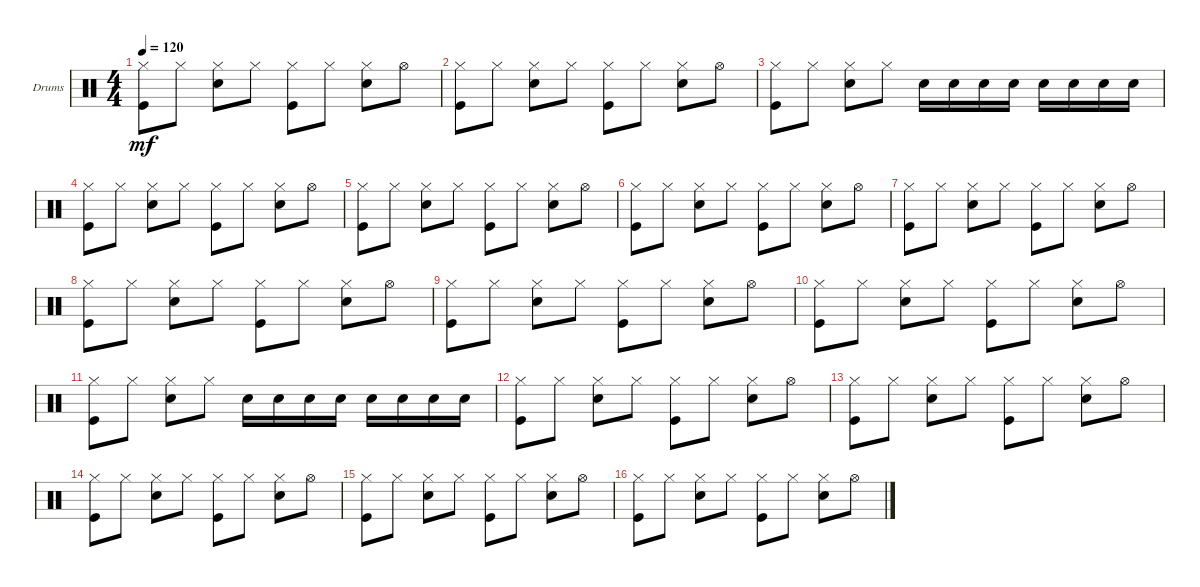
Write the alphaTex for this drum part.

\bracketExtendMode groupsimilarinstruments
\firstSystemTrackNameOrientation horizontal
\otherSystemsTrackNameOrientation horizontal
\track ("Drumkit" "Drums") {instrument percussion}
\staff {score}
\articulation defaults
\ts (4 4)
\tempo 120
\clef neutral
\ks c
("Kick (hit)" "Hi-Hat (closed)").8{dy mf} "Hi-Hat (closed)".8 ("Snare (hit) 2" "Hi-Hat (closed)").8 "Hi-Hat (closed)".8 ("Kick (hit)" "Hi-Hat (closed)").8 "Hi-Hat (closed)".8 ("Snare (hit) 2" "Hi-Hat (closed)").8 "Hi-Hat (open)".8 |
("Kick (hit)" "Hi-Hat (closed)").8 "Hi-Hat (closed)".8 ("Snare (hit) 2" "Hi-Hat (closed)").8 "Hi-Hat (closed)".8 ("Kick (hit)" "Hi-Hat (closed)").8 "Hi-Hat (closed)".8 ("Snare (hit) 2" "Hi-Hat (closed)").8 "Hi-Hat (open)".8 |
("Kick (hit)" "Hi-Hat (closed)").8 "Hi-Hat (closed)".8 ("Snare (hit) 2" "Hi-Hat (closed)").8 "Hi-Hat (closed)".8 "Snare (hit) 2".16 "Snare (hit) 2".16 "Snare (hit) 2".16 "Snare (hit) 2".16 "Snare (hit) 2".16 "Snare (hit) 2".16 "Snare (hit) 2".16 "Snare (hit) 2".16 |
("Kick (hit)" "Hi-Hat (closed)").8 "Hi-Hat (closed)".8 ("Snare (hit) 2" "Hi-Hat (closed)").8 "Hi-Hat (closed)".8 ("Kick (hit)" "Hi-Hat (closed)").8 "Hi-Hat (closed)".8 ("Snare (hit) 2" "Hi-Hat (closed)").8 "Hi-Hat (open)".8 |
("Kick (hit)" "Hi-Hat (closed)").8 "Hi-Hat (closed)".8 ("Snare (hit) 2" "Hi-Hat (closed)").8 "Hi-Hat (closed)".8 ("Kick (hit)" "Hi-Hat (closed)").8 "Hi-Hat (closed)".8 ("Snare (hit) 2" "Hi-Hat (closed)").8 "Hi-Hat (open)".8 |
("Kick (hit)" "Hi-Hat (closed)").8 "Hi-Hat (closed)".8 ("Snare (hit) 2" "Hi-Hat (closed)").8 "Hi-Hat (closed)".8 ("Kick (hit)" "Hi-Hat (closed)").8 "Hi-Hat (closed)".8 ("Snare (hit) 2" "Hi-Hat (closed)").8 "Hi-Hat (open)".8 |
("Kick (hit)" "Hi-Hat (closed)").8 "Hi-Hat (closed)".8 ("Snare (hit) 2" "Hi-Hat (closed)").8 "Hi-Hat (closed)".8 ("Kick (hit)" "Hi-Hat (closed)").8 "Hi-Hat (closed)".8 ("Snare (hit) 2" "Hi-Hat (closed)").8 "Hi-Hat (open)".8 |
("Kick (hit)" "Hi-Hat (closed)").8 "Hi-Hat (closed)".8 ("Snare (hit) 2" "Hi-Hat (closed)").8 "Hi-Hat (closed)".8 ("Kick (hit)" "Hi-Hat (closed)").8 "Hi-Hat (closed)".8 ("Snare (hit) 2" "Hi-Hat (closed)").8 "Hi-Hat (open)".8 |
("Kick (hit)" "Hi-Hat (closed)").8 "Hi-Hat (closed)".8 ("Snare (hit) 2" "Hi-Hat (closed)").8 "Hi-Hat (closed)".8 ("Kick (hit)" "Hi-Hat (closed)").8 "Hi-Hat (closed)".8 ("Snare (hit) 2" "Hi-Hat (closed)").8 "Hi-Hat (open)".8 |
("Kick (hit)" "Hi-Hat (closed)").8 "Hi-Hat (closed)".8 ("Snare (hit) 2" "Hi-Hat (closed)").8 "Hi-Hat (closed)".8 ("Kick (hit)" "Hi-Hat (closed)").8 "Hi-Hat (closed)".8 ("Snare (hit) 2" "Hi-Hat (closed)").8 "Hi-Hat (open)".8 |
("Kick (hit)" "Hi-Hat (closed)").8 "Hi-Hat (closed)".8 ("Snare (hit) 2" "Hi-Hat (closed)").8 "Hi-Hat (closed)".8 "Snare (hit) 2".16 "Snare (hit) 2".16 "Snare (hit) 2".16 "Snare (hit) 2".16 "Snare (hit) 2".16 "Snare (hit) 2".16 "Snare (hit) 2".16 "Snare (hit) 2".16 |
("Kick (hit)" "Hi-Hat (closed)").8 "Hi-Hat (closed)".8 ("Snare (hit) 2" "Hi-Hat (closed)").8 "Hi-Hat (closed)".8 ("Kick (hit)" "Hi-Hat (closed)").8 "Hi-Hat (closed)".8 ("Snare (hit) 2" "Hi-Hat (closed)").8 "Hi-Hat (open)".8 |
("Kick (hit)" "Hi-Hat (closed)").8 "Hi-Hat (closed)".8 ("Snare (hit) 2" "Hi-Hat (closed)").8 "Hi-Hat (closed)".8 ("Kick (hit)" "Hi-Hat (closed)").8 "Hi-Hat (closed)".8 ("Snare (hit) 2" "Hi-Hat (closed)").8 "Hi-Hat (open)".8 |
("Kick (hit)" "Hi-Hat (closed)").8 "Hi-Hat (closed)".8 ("Snare (hit) 2" "Hi-Hat (closed)").8 "Hi-Hat (closed)".8 ("Kick (hit)" "Hi-Hat (closed)").8 "Hi-Hat (closed)".8 ("Snare (hit) 2" "Hi-Hat (closed)").8 "Hi-Hat (open)".8 |
("Kick (hit)" "Hi-Hat (closed)").8 "Hi-Hat (closed)".8 ("Snare (hit) 2" "Hi-Hat (closed)").8 "Hi-Hat (closed)".8 ("Kick (hit)" "Hi-Hat (closed)").8 "Hi-Hat (closed)".8 ("Snare (hit) 2" "Hi-Hat (closed)").8 "Hi-Hat (open)".8 |
("Kick (hit)" "Hi-Hat (closed)").8 "Hi-Hat (closed)".8 ("Snare (hit) 2" "Hi-Hat (closed)").8 "Hi-Hat (closed)".8 ("Kick (hit)" "Hi-Hat (closed)").8 "Hi-Hat (closed)".8 ("Snare (hit) 2" "Hi-Hat (closed)").8 "Hi-Hat (open)".8
